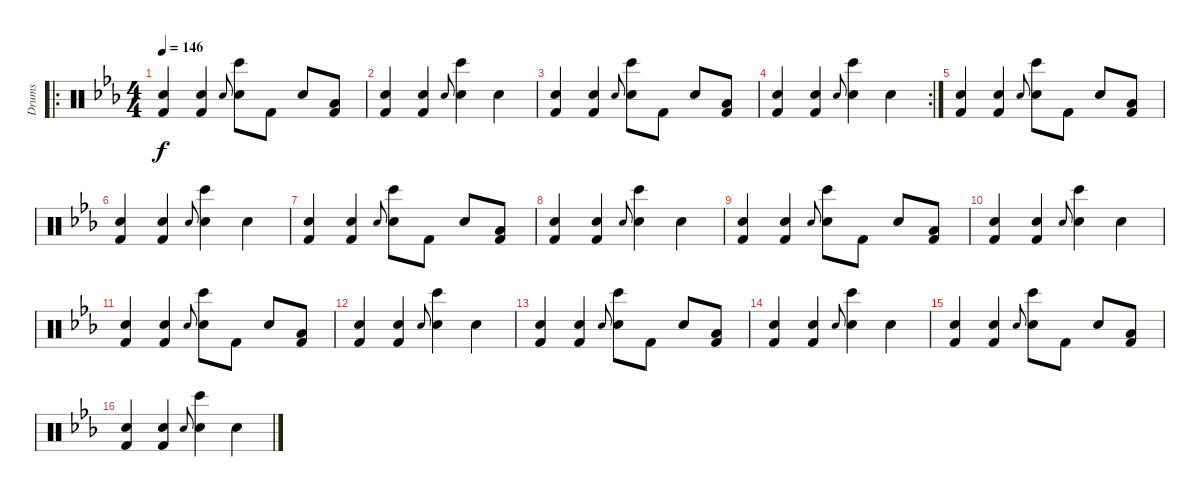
\track ("Drums" "Drums") {instrument percussion}
\staff {score}
\articulation defaults
\ro
\ts (4 4)
\tempo 146
\clef neutral
\ks cminor
("Hand Clap (hit)" "Kick (hit) 2").4{dy f} ("Hand Clap (hit)" "Kick (hit) 2").4 "Electric Snare (hit)".8{gr onbeat} ("Hand Clap (hit)" "Bongo High (hit)").8 "Kick (hit) 2".8 "Hand Clap (hit)".8 ("Low Floor Tom (hit)" "Kick (hit) 2").8 |
("Hand Clap (hit)" "Kick (hit) 2").4 ("Hand Clap (hit)" "Kick (hit) 2").4 "Electric Snare (hit)".8{gr onbeat} ("Hand Clap (hit)" "Bongo High (hit)").4 "Hand Clap (hit)".4 |
("Hand Clap (hit)" "Kick (hit) 2").4 ("Hand Clap (hit)" "Kick (hit) 2").4 "Electric Snare (hit)".8{gr onbeat} ("Hand Clap (hit)" "Bongo High (hit)").8 "Kick (hit) 2".8 "Hand Clap (hit)".8 ("Low Floor Tom (hit)" "Kick (hit) 2").8 |
\rc 2
("Hand Clap (hit)" "Kick (hit) 2").4 ("Hand Clap (hit)" "Kick (hit) 2").4 "Electric Snare (hit)".8{gr onbeat} ("Hand Clap (hit)" "Bongo High (hit)").4 "Hand Clap (hit)".4 |
("Hand Clap (hit)" "Kick (hit) 2").4 ("Hand Clap (hit)" "Kick (hit) 2").4 "Electric Snare (hit)".8{gr onbeat} ("Hand Clap (hit)" "Bongo High (hit)").8 "Kick (hit) 2".8 "Hand Clap (hit)".8 ("Low Floor Tom (hit)" "Kick (hit) 2").8 |
("Hand Clap (hit)" "Kick (hit) 2").4 ("Hand Clap (hit)" "Kick (hit) 2").4 "Electric Snare (hit)".8{gr onbeat} ("Hand Clap (hit)" "Bongo High (hit)").4 "Hand Clap (hit)".4 |
("Hand Clap (hit)" "Kick (hit) 2").4 ("Hand Clap (hit)" "Kick (hit) 2").4 "Electric Snare (hit)".8{gr onbeat} ("Hand Clap (hit)" "Bongo High (hit)").8 "Kick (hit) 2".8 "Hand Clap (hit)".8 ("Low Floor Tom (hit)" "Kick (hit) 2").8 |
("Hand Clap (hit)" "Kick (hit) 2").4 ("Hand Clap (hit)" "Kick (hit) 2").4 "Electric Snare (hit)".8{gr onbeat} ("Hand Clap (hit)" "Bongo High (hit)").4 "Hand Clap (hit)".4 |
("Hand Clap (hit)" "Kick (hit) 2").4 ("Hand Clap (hit)" "Kick (hit) 2").4 "Electric Snare (hit)".8{gr onbeat} ("Hand Clap (hit)" "Bongo High (hit)").8 "Kick (hit) 2".8 "Hand Clap (hit)".8 ("Low Floor Tom (hit)" "Kick (hit) 2").8 |
("Hand Clap (hit)" "Kick (hit) 2").4 ("Hand Clap (hit)" "Kick (hit) 2").4 "Electric Snare (hit)".8{gr onbeat} ("Hand Clap (hit)" "Bongo High (hit)").4 "Hand Clap (hit)".4 |
("Hand Clap (hit)" "Kick (hit) 2").4 ("Hand Clap (hit)" "Kick (hit) 2").4 "Electric Snare (hit)".8{gr onbeat} ("Hand Clap (hit)" "Bongo High (hit)").8 "Kick (hit) 2".8 "Hand Clap (hit)".8 ("Low Floor Tom (hit)" "Kick (hit) 2").8 |
("Hand Clap (hit)" "Kick (hit) 2").4 ("Hand Clap (hit)" "Kick (hit) 2").4 "Electric Snare (hit)".8{gr onbeat} ("Hand Clap (hit)" "Bongo High (hit)").4 "Hand Clap (hit)".4 |
("Hand Clap (hit)" "Kick (hit) 2").4 ("Hand Clap (hit)" "Kick (hit) 2").4 "Electric Snare (hit)".8{gr onbeat} ("Hand Clap (hit)" "Bongo High (hit)").8 "Kick (hit) 2".8 "Hand Clap (hit)".8 ("Low Floor Tom (hit)" "Kick (hit) 2").8 |
("Hand Clap (hit)" "Kick (hit) 2").4 ("Hand Clap (hit)" "Kick (hit) 2").4 "Electric Snare (hit)".8{gr onbeat} ("Hand Clap (hit)" "Bongo High (hit)").4 "Hand Clap (hit)".4 |
("Hand Clap (hit)" "Kick (hit) 2").4 ("Hand Clap (hit)" "Kick (hit) 2").4 "Electric Snare (hit)".8{gr onbeat} ("Hand Clap (hit)" "Bongo High (hit)").8 "Kick (hit) 2".8 "Hand Clap (hit)".8 ("Low Floor Tom (hit)" "Kick (hit) 2").8 |
("Hand Clap (hit)" "Kick (hit) 2").4 ("Hand Clap (hit)" "Kick (hit) 2").4 "Electric Snare (hit)".8{gr onbeat} ("Hand Clap (hit)" "Bongo High (hit)").4 "Hand Clap (hit)".4
